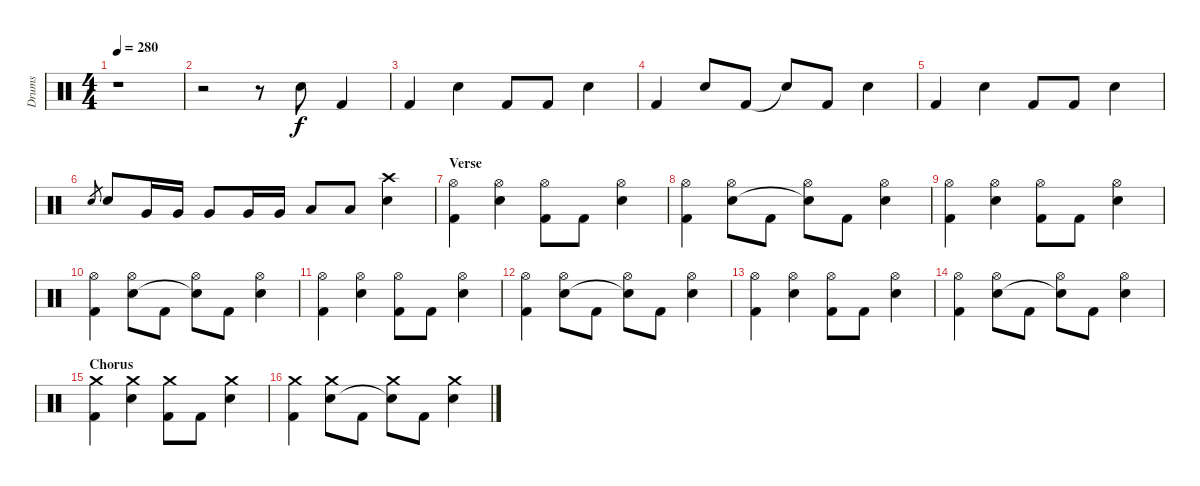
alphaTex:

\track ("Drums" "Drums") {instrument percussion}
\staff {score}
\articulation defaults
\ts (4 4)
\tempo 280
\clef neutral
\ks c
r.1{dy f} |
r.2 r.8 "Snare (hit) 2".8 "Kick (hit) 2".4 |
"Kick (hit) 2".4 "Snare (hit) 2".4 "Kick (hit) 2".8 "Kick (hit) 2".8 "Snare (hit) 2".4 |
"Kick (hit) 2".4 "Snare (hit) 2".8 "Kick (hit) 2".8 "Snare (hit)"{t}.8 "Kick (hit) 2".8 "Snare (hit) 2".4 |
"Kick (hit) 2".4 "Snare (hit) 2".4 "Kick (hit) 2".8 "Kick (hit) 2".8 "Snare (hit) 2".4 |
"Snare (hit) 2".8{gr} "Snare (hit) 2".8 "Very Low Tom (hit)".16 "Very Low Tom (hit)".16 "Very Low Tom (hit)".8 "Very Low Tom (hit)".16 "Very Low Tom (hit)".16 "Low Floor Tom (hit)".8 "Low Floor Tom (hit)".8 ("Crash high (hit)" "Snare (hit) 2").4 |
\section ("" "Verse")
("Hi-Hat (open)" "Kick (hit) 2").4 ("Hi-Hat (open)" "Snare (hit) 2").4 ("Hi-Hat (open)" "Kick (hit) 2").8 "Kick (hit) 2".8 ("Hi-Hat (open)" "Snare (hit) 2").4 |
("Hi-Hat (open)" "Kick (hit) 2").4 ("Hi-Hat (open)" "Snare (hit) 2").8 "Kick (hit) 2".8 ("Hi-Hat (open)" "Snare (hit)"{t}).8 "Kick (hit) 2".8 ("Hi-Hat (open)" "Snare (hit) 2").4 |
("Hi-Hat (open)" "Kick (hit) 2").4 ("Hi-Hat (open)" "Snare (hit) 2").4 ("Hi-Hat (open)" "Kick (hit) 2").8 "Kick (hit) 2".8 ("Hi-Hat (open)" "Snare (hit) 2").4 |
("Hi-Hat (open)" "Kick (hit) 2").4 ("Hi-Hat (open)" "Snare (hit) 2").8 "Kick (hit) 2".8 ("Hi-Hat (open)" "Snare (hit)"{t}).8 "Kick (hit) 2".8 ("Hi-Hat (open)" "Snare (hit) 2").4 |
("Hi-Hat (open)" "Kick (hit) 2").4 ("Hi-Hat (open)" "Snare (hit) 2").4 ("Hi-Hat (open)" "Kick (hit) 2").8 "Kick (hit) 2".8 ("Hi-Hat (open)" "Snare (hit) 2").4 |
("Hi-Hat (open)" "Kick (hit) 2").4 ("Hi-Hat (open)" "Snare (hit) 2").8 "Kick (hit) 2".8 ("Hi-Hat (open)" "Snare (hit)"{t}).8 "Kick (hit) 2".8 ("Hi-Hat (open)" "Snare (hit) 2").4 |
("Hi-Hat (open)" "Kick (hit) 2").4 ("Hi-Hat (open)" "Snare (hit) 2").4 ("Hi-Hat (open)" "Kick (hit) 2").8 "Kick (hit) 2".8 ("Hi-Hat (open)" "Snare (hit) 2").4 |
("Hi-Hat (open)" "Kick (hit) 2").4 ("Hi-Hat (open)" "Snare (hit) 2").8 "Kick (hit) 2".8 ("Hi-Hat (open)" "Snare (hit)"{t}).8 "Kick (hit) 2".8 ("Hi-Hat (open)" "Snare (hit) 2").4 |
\section ("" "Chorus")
("Crash medium (hit)" "Kick (hit) 2").4 ("Crash medium (hit)" "Snare (hit) 2").4 ("Crash medium (hit)" "Kick (hit) 2").8 "Kick (hit) 2".8 ("Crash medium (hit)" "Snare (hit) 2").4 |
("Crash medium (hit)" "Kick (hit) 2").4 ("Crash medium (hit)" "Snare (hit) 2").8 "Kick (hit) 2".8 ("Crash medium (hit)" "Snare (hit)"{t}).8 "Kick (hit) 2".8 ("Crash medium (hit)" "Snare (hit) 2").4
